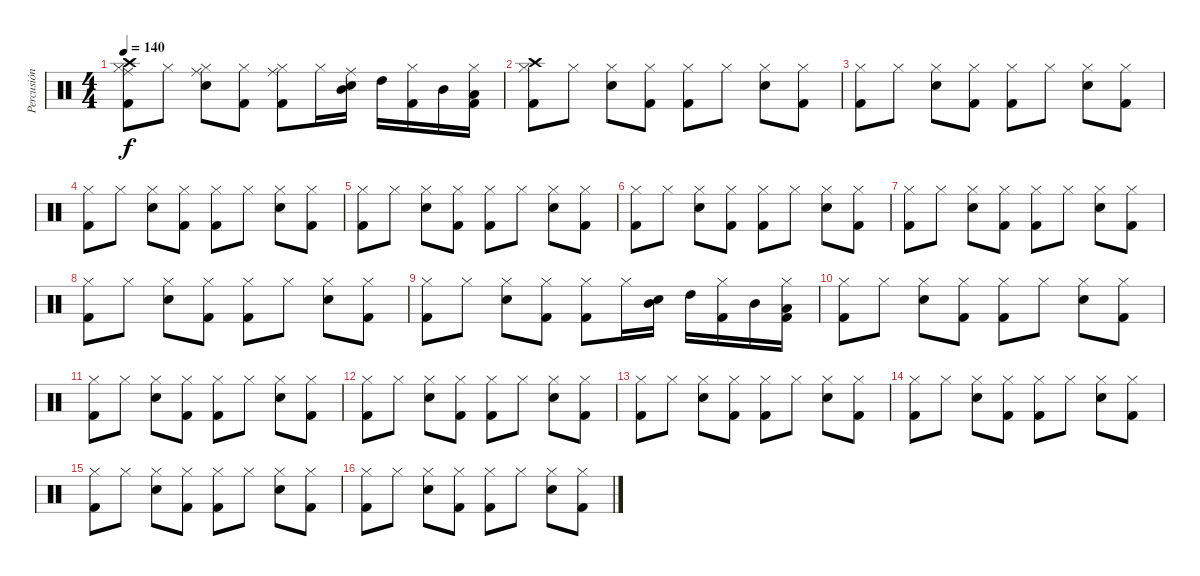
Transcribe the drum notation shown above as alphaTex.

\track ("Percusión" "Percusión") {instrument percussion}
\staff {score}
\articulation defaults
\ts (4 4)
\tempo 140
\clef neutral
\ks c
("Hi-Hat (closed)" "Kick (hit) 2" "Crash high (hit)" "Ride (middle)").8{dy f} "Hi-Hat (closed)".8 ("Hi-Hat (closed)" "Snare (hit) 2" "Ride (middle)").8 ("Hi-Hat (closed)" "Kick (hit) 2").8 ("Hi-Hat (closed)" "Kick (hit) 2" "Ride (middle)").8 "Hi-Hat (closed)".16 ("Mid Tom (hit)" "Snare (hit) 2" "Ride (middle)").16 "High Tom (hit)".16 ("Hi-Hat (closed)" "Kick (hit) 2").16 "Mid Tom (hit)".16 ("Hi-Hat (closed)" "Low Tom (hit)" "Kick (hit) 2").16 |
("Hi-Hat (closed)" "Kick (hit) 2" "Crash high (hit)").8 "Hi-Hat (closed)".8 ("Hi-Hat (closed)" "Snare (hit) 2").8 ("Hi-Hat (closed)" "Kick (hit) 2").8 ("Hi-Hat (closed)" "Kick (hit) 2").8 "Hi-Hat (closed)".8 ("Hi-Hat (closed)" "Snare (hit) 2").8 ("Hi-Hat (closed)" "Kick (hit) 2").8 |
("Hi-Hat (closed)" "Kick (hit) 2").8 "Hi-Hat (closed)".8 ("Hi-Hat (closed)" "Snare (hit) 2").8 ("Hi-Hat (closed)" "Kick (hit) 2").8 ("Hi-Hat (closed)" "Kick (hit) 2").8 "Hi-Hat (closed)".8 ("Hi-Hat (closed)" "Snare (hit) 2").8 ("Hi-Hat (closed)" "Kick (hit) 2").8 |
("Hi-Hat (closed)" "Kick (hit) 2").8 "Hi-Hat (closed)".8 ("Hi-Hat (closed)" "Snare (hit) 2").8 ("Hi-Hat (closed)" "Kick (hit) 2").8 ("Hi-Hat (closed)" "Kick (hit) 2").8 "Hi-Hat (closed)".8 ("Hi-Hat (closed)" "Snare (hit) 2").8 ("Hi-Hat (closed)" "Kick (hit) 2").8 |
("Hi-Hat (closed)" "Kick (hit) 2").8 "Hi-Hat (closed)".8 ("Hi-Hat (closed)" "Snare (hit) 2").8 ("Hi-Hat (closed)" "Kick (hit) 2").8 ("Hi-Hat (closed)" "Kick (hit) 2").8 "Hi-Hat (closed)".8 ("Hi-Hat (closed)" "Snare (hit) 2").8 ("Hi-Hat (closed)" "Kick (hit) 2").8 |
("Hi-Hat (closed)" "Kick (hit) 2").8 "Hi-Hat (closed)".8 ("Hi-Hat (closed)" "Snare (hit) 2").8 ("Hi-Hat (closed)" "Kick (hit) 2").8 ("Hi-Hat (closed)" "Kick (hit) 2").8 "Hi-Hat (closed)".8 ("Hi-Hat (closed)" "Snare (hit) 2").8 ("Hi-Hat (closed)" "Kick (hit) 2").8 |
("Hi-Hat (closed)" "Kick (hit) 2").8 "Hi-Hat (closed)".8 ("Hi-Hat (closed)" "Snare (hit) 2").8 ("Hi-Hat (closed)" "Kick (hit) 2").8 ("Hi-Hat (closed)" "Kick (hit) 2").8 "Hi-Hat (closed)".8 ("Hi-Hat (closed)" "Snare (hit) 2").8 ("Hi-Hat (closed)" "Kick (hit) 2").8 |
("Hi-Hat (closed)" "Kick (hit) 2").8 "Hi-Hat (closed)".8 ("Hi-Hat (closed)" "Snare (hit) 2").8 ("Hi-Hat (closed)" "Kick (hit) 2").8 ("Hi-Hat (closed)" "Kick (hit) 2").8 "Hi-Hat (closed)".8 ("Hi-Hat (closed)" "Snare (hit) 2").8 ("Hi-Hat (closed)" "Kick (hit) 2").8 |
("Hi-Hat (closed)" "Kick (hit) 2").8 "Hi-Hat (closed)".8 ("Hi-Hat (closed)" "Snare (hit) 2").8 ("Hi-Hat (closed)" "Kick (hit) 2").8 ("Hi-Hat (closed)" "Kick (hit) 2").8 "Hi-Hat (closed)".16 ("Mid Tom (hit)" "Snare (hit) 2").16 "High Tom (hit)".16 ("Hi-Hat (closed)" "Kick (hit) 2").16 "Mid Tom (hit)".16 ("Hi-Hat (closed)" "Low Tom (hit)" "Kick (hit) 2").16 |
("Hi-Hat (closed)" "Kick (hit) 2").8 "Hi-Hat (closed)".8 ("Hi-Hat (closed)" "Snare (hit) 2").8 ("Hi-Hat (closed)" "Kick (hit) 2").8 ("Hi-Hat (closed)" "Kick (hit) 2").8 "Hi-Hat (closed)".8 ("Hi-Hat (closed)" "Snare (hit) 2").8 ("Hi-Hat (closed)" "Kick (hit) 2").8 |
("Hi-Hat (closed)" "Kick (hit) 2").8 "Hi-Hat (closed)".8 ("Hi-Hat (closed)" "Snare (hit) 2").8 ("Hi-Hat (closed)" "Kick (hit) 2").8 ("Hi-Hat (closed)" "Kick (hit) 2").8 "Hi-Hat (closed)".8 ("Hi-Hat (closed)" "Snare (hit) 2").8 ("Hi-Hat (closed)" "Kick (hit) 2").8 |
("Hi-Hat (closed)" "Kick (hit) 2").8 "Hi-Hat (closed)".8 ("Hi-Hat (closed)" "Snare (hit) 2").8 ("Hi-Hat (closed)" "Kick (hit) 2").8 ("Hi-Hat (closed)" "Kick (hit) 2").8 "Hi-Hat (closed)".8 ("Hi-Hat (closed)" "Snare (hit) 2").8 ("Hi-Hat (closed)" "Kick (hit) 2").8 |
("Hi-Hat (closed)" "Kick (hit) 2").8 "Hi-Hat (closed)".8 ("Hi-Hat (closed)" "Snare (hit) 2").8 ("Hi-Hat (closed)" "Kick (hit) 2").8 ("Hi-Hat (closed)" "Kick (hit) 2").8 "Hi-Hat (closed)".8 ("Hi-Hat (closed)" "Snare (hit) 2").8 ("Hi-Hat (closed)" "Kick (hit) 2").8 |
("Hi-Hat (closed)" "Kick (hit) 2").8 "Hi-Hat (closed)".8 ("Hi-Hat (closed)" "Snare (hit) 2").8 ("Hi-Hat (closed)" "Kick (hit) 2").8 ("Hi-Hat (closed)" "Kick (hit) 2").8 "Hi-Hat (closed)".8 ("Hi-Hat (closed)" "Snare (hit) 2").8 ("Hi-Hat (closed)" "Kick (hit) 2").8 |
("Hi-Hat (closed)" "Kick (hit) 2").8 "Hi-Hat (closed)".8 ("Hi-Hat (closed)" "Snare (hit) 2").8 ("Hi-Hat (closed)" "Kick (hit) 2").8 ("Hi-Hat (closed)" "Kick (hit) 2").8 "Hi-Hat (closed)".8 ("Hi-Hat (closed)" "Snare (hit) 2").8 ("Hi-Hat (closed)" "Kick (hit) 2").8 |
("Hi-Hat (closed)" "Kick (hit) 2").8 "Hi-Hat (closed)".8 ("Hi-Hat (closed)" "Snare (hit) 2").8 ("Hi-Hat (closed)" "Kick (hit) 2").8 ("Hi-Hat (closed)" "Kick (hit) 2").8 "Hi-Hat (closed)".8 ("Hi-Hat (closed)" "Snare (hit) 2").8 ("Hi-Hat (closed)" "Kick (hit) 2").8
